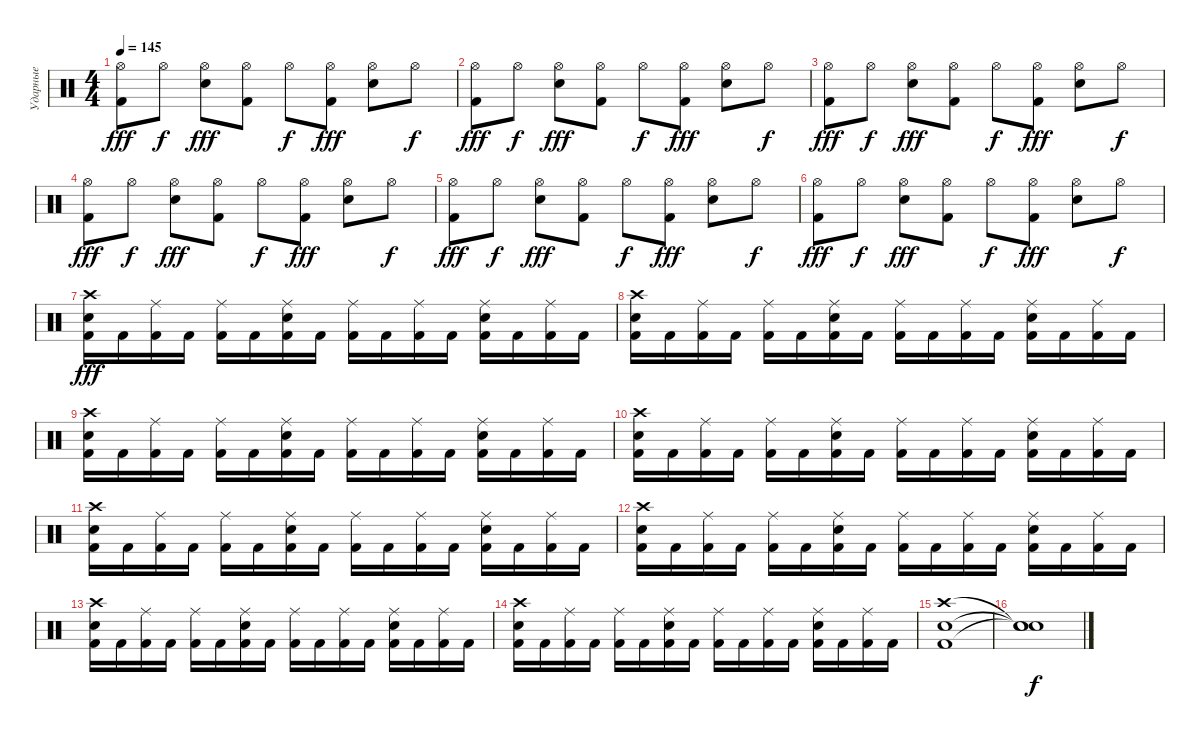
\track ("Ударные" "Ударные") {instrument percussion}
\staff {score}
\articulation defaults
\ts (4 4)
\tempo 145
\clef neutral
\ks c
("Kick (hit) 2" "Hi-Hat (open)").8{dy fff} "Hi-Hat (open)".8{dy f} ("Electric Snare (hit)" "Hi-Hat (open)").8{dy fff} ("Kick (hit) 2" "Hi-Hat (open)").8 "Hi-Hat (open)".8{dy f} ("Kick (hit) 2" "Hi-Hat (open)").8{dy fff} ("Electric Snare (hit)" "Hi-Hat (open)").8 "Hi-Hat (open)".8{dy f} |
("Kick (hit) 2" "Hi-Hat (open)").8{dy fff} "Hi-Hat (open)".8{dy f} ("Electric Snare (hit)" "Hi-Hat (open)").8{dy fff} ("Kick (hit) 2" "Hi-Hat (open)").8 "Hi-Hat (open)".8{dy f} ("Kick (hit) 2" "Hi-Hat (open)").8{dy fff} ("Electric Snare (hit)" "Hi-Hat (open)").8 "Hi-Hat (open)".8{dy f} |
("Kick (hit) 2" "Hi-Hat (open)").8{dy fff} "Hi-Hat (open)".8{dy f} ("Electric Snare (hit)" "Hi-Hat (open)").8{dy fff} ("Kick (hit) 2" "Hi-Hat (open)").8 "Hi-Hat (open)".8{dy f} ("Kick (hit) 2" "Hi-Hat (open)").8{dy fff} ("Electric Snare (hit)" "Hi-Hat (open)").8 "Hi-Hat (open)".8{dy f} |
("Kick (hit) 2" "Hi-Hat (open)").8{dy fff} "Hi-Hat (open)".8{dy f} ("Electric Snare (hit)" "Hi-Hat (open)").8{dy fff} ("Kick (hit) 2" "Hi-Hat (open)").8 "Hi-Hat (open)".8{dy f} ("Kick (hit) 2" "Hi-Hat (open)").8{dy fff} ("Electric Snare (hit)" "Hi-Hat (open)").8 "Hi-Hat (open)".8{dy f} |
("Kick (hit) 2" "Hi-Hat (open)").8{dy fff} "Hi-Hat (open)".8{dy f} ("Electric Snare (hit)" "Hi-Hat (open)").8{dy fff} ("Kick (hit) 2" "Hi-Hat (open)").8 "Hi-Hat (open)".8{dy f} ("Kick (hit) 2" "Hi-Hat (open)").8{dy fff} ("Electric Snare (hit)" "Hi-Hat (open)").8 "Hi-Hat (open)".8{dy f} |
("Kick (hit) 2" "Hi-Hat (open)").8{dy fff} "Hi-Hat (open)".8{dy f} ("Electric Snare (hit)" "Hi-Hat (open)").8{dy fff} ("Kick (hit) 2" "Hi-Hat (open)").8 "Hi-Hat (open)".8{dy f} ("Kick (hit) 2" "Hi-Hat (open)").8{dy fff} ("Electric Snare (hit)" "Hi-Hat (open)").8 "Hi-Hat (open)".8{dy f} |
("Kick (hit) 2" "Electric Snare (hit)" "Crash high (hit)").16{dy fff} "Kick (hit) 2".16 ("Kick (hit) 2" "Ride (middle)").16 "Kick (hit) 2".16 ("Kick (hit) 2" "Ride (middle)").16 "Kick (hit) 2".16 ("Kick (hit) 2" "Electric Snare (hit)" "Ride (middle)").16 "Kick (hit) 2".16 ("Kick (hit) 2" "Ride (middle)").16 "Kick (hit) 2".16 ("Kick (hit) 2" "Ride (middle)").16 "Kick (hit) 2".16 ("Kick (hit) 2" "Electric Snare (hit)" "Ride (middle)").16 "Kick (hit) 2".16 ("Kick (hit) 2" "Ride (middle)").16 "Kick (hit) 2".16 |
("Kick (hit) 2" "Electric Snare (hit)" "Crash high (hit)").16 "Kick (hit) 2".16 ("Kick (hit) 2" "Ride (middle)").16 "Kick (hit) 2".16 ("Kick (hit) 2" "Ride (middle)").16 "Kick (hit) 2".16 ("Kick (hit) 2" "Electric Snare (hit)" "Ride (middle)").16 "Kick (hit) 2".16 ("Kick (hit) 2" "Ride (middle)").16 "Kick (hit) 2".16 ("Kick (hit) 2" "Ride (middle)").16 "Kick (hit) 2".16 ("Kick (hit) 2" "Electric Snare (hit)" "Ride (middle)").16 "Kick (hit) 2".16 ("Kick (hit) 2" "Ride (middle)").16 "Kick (hit) 2".16 |
("Kick (hit) 2" "Electric Snare (hit)" "Crash high (hit)").16 "Kick (hit) 2".16 ("Kick (hit) 2" "Ride (middle)").16 "Kick (hit) 2".16 ("Kick (hit) 2" "Ride (middle)").16 "Kick (hit) 2".16 ("Kick (hit) 2" "Electric Snare (hit)" "Ride (middle)").16 "Kick (hit) 2".16 ("Kick (hit) 2" "Ride (middle)").16 "Kick (hit) 2".16 ("Kick (hit) 2" "Ride (middle)").16 "Kick (hit) 2".16 ("Kick (hit) 2" "Electric Snare (hit)" "Ride (middle)").16 "Kick (hit) 2".16 ("Kick (hit) 2" "Ride (middle)").16 "Kick (hit) 2".16 |
("Kick (hit) 2" "Electric Snare (hit)" "Crash high (hit)").16 "Kick (hit) 2".16 ("Kick (hit) 2" "Ride (middle)").16 "Kick (hit) 2".16 ("Kick (hit) 2" "Ride (middle)").16 "Kick (hit) 2".16 ("Kick (hit) 2" "Electric Snare (hit)" "Ride (middle)").16 "Kick (hit) 2".16 ("Kick (hit) 2" "Ride (middle)").16 "Kick (hit) 2".16 ("Kick (hit) 2" "Ride (middle)").16 "Kick (hit) 2".16 ("Kick (hit) 2" "Electric Snare (hit)" "Ride (middle)").16 "Kick (hit) 2".16 ("Kick (hit) 2" "Ride (middle)").16 "Kick (hit) 2".16 |
("Kick (hit) 2" "Electric Snare (hit)" "Crash high (hit)").16 "Kick (hit) 2".16 ("Kick (hit) 2" "Ride (middle)").16 "Kick (hit) 2".16 ("Kick (hit) 2" "Ride (middle)").16 "Kick (hit) 2".16 ("Kick (hit) 2" "Electric Snare (hit)" "Ride (middle)").16 "Kick (hit) 2".16 ("Kick (hit) 2" "Ride (middle)").16 "Kick (hit) 2".16 ("Kick (hit) 2" "Ride (middle)").16 "Kick (hit) 2".16 ("Kick (hit) 2" "Electric Snare (hit)" "Ride (middle)").16 "Kick (hit) 2".16 ("Kick (hit) 2" "Ride (middle)").16 "Kick (hit) 2".16 |
("Kick (hit) 2" "Electric Snare (hit)" "Crash high (hit)").16 "Kick (hit) 2".16 ("Kick (hit) 2" "Ride (middle)").16 "Kick (hit) 2".16 ("Kick (hit) 2" "Ride (middle)").16 "Kick (hit) 2".16 ("Kick (hit) 2" "Electric Snare (hit)" "Ride (middle)").16 "Kick (hit) 2".16 ("Kick (hit) 2" "Ride (middle)").16 "Kick (hit) 2".16 ("Kick (hit) 2" "Ride (middle)").16 "Kick (hit) 2".16 ("Kick (hit) 2" "Electric Snare (hit)" "Ride (middle)").16 "Kick (hit) 2".16 ("Kick (hit) 2" "Ride (middle)").16 "Kick (hit) 2".16 |
("Kick (hit) 2" "Electric Snare (hit)" "Crash high (hit)").16 "Kick (hit) 2".16 ("Kick (hit) 2" "Ride (middle)").16 "Kick (hit) 2".16 ("Kick (hit) 2" "Ride (middle)").16 "Kick (hit) 2".16 ("Kick (hit) 2" "Electric Snare (hit)" "Ride (middle)").16 "Kick (hit) 2".16 ("Kick (hit) 2" "Ride (middle)").16 "Kick (hit) 2".16 ("Kick (hit) 2" "Ride (middle)").16 "Kick (hit) 2".16 ("Kick (hit) 2" "Electric Snare (hit)" "Ride (middle)").16 "Kick (hit) 2".16 ("Kick (hit) 2" "Ride (middle)").16 "Kick (hit) 2".16 |
("Kick (hit) 2" "Electric Snare (hit)" "Crash high (hit)").16 "Kick (hit) 2".16 ("Kick (hit) 2" "Ride (middle)").16 "Kick (hit) 2".16 ("Kick (hit) 2" "Ride (middle)").16 "Kick (hit) 2".16 ("Kick (hit) 2" "Electric Snare (hit)" "Ride (middle)").16 "Kick (hit) 2".16 ("Kick (hit) 2" "Ride (middle)").16 "Kick (hit) 2".16 ("Kick (hit) 2" "Ride (middle)").16 "Kick (hit) 2".16 ("Kick (hit) 2" "Electric Snare (hit)" "Ride (middle)").16 "Kick (hit) 2".16 ("Kick (hit) 2" "Ride (middle)").16 "Kick (hit) 2".16 |
("Kick (hit) 2" "Electric Snare (hit)" "Crash high (hit)").1 |
("Snare (hit)"{t} "Snare (hit)"{t} "Snare (hit)"{t}).1{dy f}
